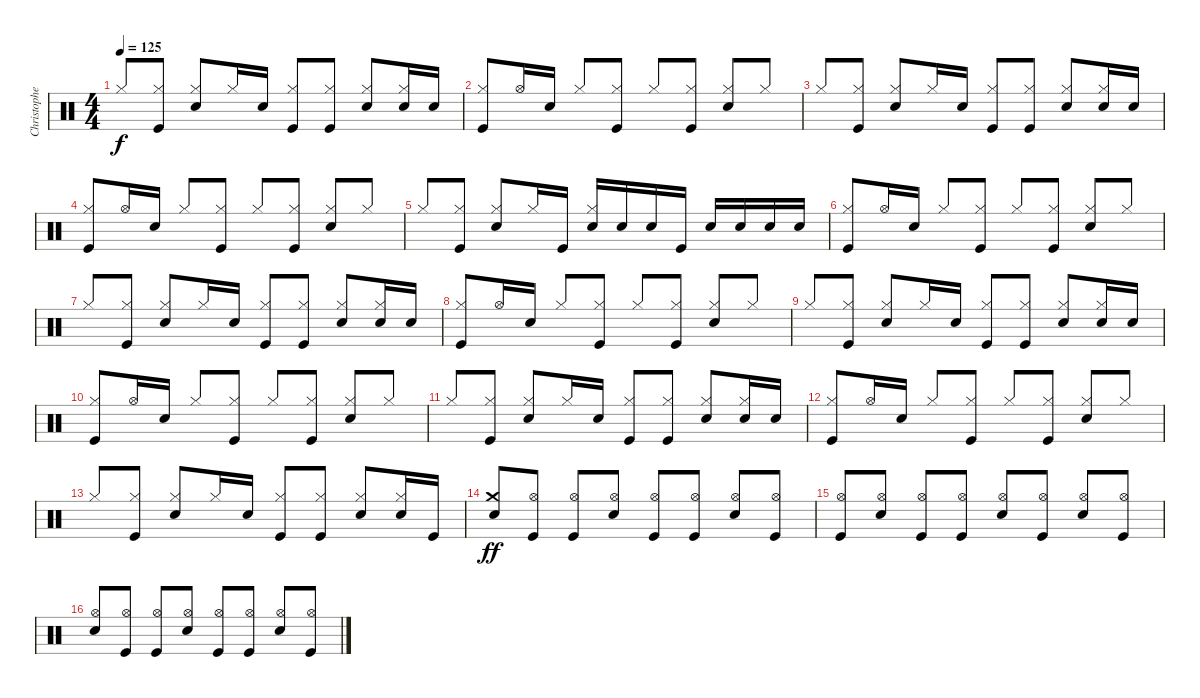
\track ("Christopher Guanlao - Drums" "Christophe") {instrument percussion}
\staff {score}
\articulation defaults
\ts (4 4)
\tempo 125
\clef neutral
\ks c "Hi-Hat (closed)".8{dy f beam Up}
("Hi-Hat (closed)" "Kick (hit)").8{beam Up} ("Hi-Hat (closed)" "Electric Snare (hit)").8{beam Up} "Hi-Hat (closed)".16{beam Up} "Electric Snare (hit)".16{beam Up} ("Hi-Hat (closed)" "Kick (hit)").8{beam Up} ("Hi-Hat (closed)" "Kick (hit)").8{beam Up} ("Hi-Hat (closed)" "Electric Snare (hit)").8{beam Up} ("Hi-Hat (closed)" "Electric Snare (hit)").16{beam Up} "Electric Snare (hit)".16{beam Up} |
("Hi-Hat (closed)" "Kick (hit)").8{beam Up} "Hi-Hat (open)".16{beam Up} "Electric Snare (hit)".16{beam Up} "Hi-Hat (closed)".8{beam Up} ("Hi-Hat (closed)" "Kick (hit)").8{beam Up} "Hi-Hat (closed)".8{beam Up} ("Hi-Hat (closed)" "Kick (hit)").8{beam Up} ("Hi-Hat (closed)" "Electric Snare (hit)").8{beam Up} "Hi-Hat (closed)".8{beam Up} |
"Hi-Hat (closed)".8{beam Up} ("Hi-Hat (closed)" "Kick (hit)").8{beam Up} ("Hi-Hat (closed)" "Electric Snare (hit)").8{beam Up} "Hi-Hat (closed)".16{beam Up} "Electric Snare (hit)".16{beam Up} ("Hi-Hat (closed)" "Kick (hit)").8{beam Up} ("Hi-Hat (closed)" "Kick (hit)").8{beam Up} ("Hi-Hat (closed)" "Electric Snare (hit)").8{beam Up} ("Hi-Hat (closed)" "Electric Snare (hit)").16{beam Up} "Electric Snare (hit)".16{beam Up} |
("Hi-Hat (closed)" "Kick (hit)").8{beam Up} "Hi-Hat (open)".16{beam Up} "Electric Snare (hit)".16{beam Up} "Hi-Hat (closed)".8{beam Up} ("Hi-Hat (closed)" "Kick (hit)").8{beam Up} "Hi-Hat (closed)".8{beam Up} ("Hi-Hat (closed)" "Kick (hit)").8{beam Up} ("Hi-Hat (closed)" "Electric Snare (hit)").8{beam Up} "Hi-Hat (closed)".8{beam Up} |
"Hi-Hat (closed)".8{beam Up} ("Hi-Hat (closed)" "Kick (hit)").8{beam Up} ("Hi-Hat (closed)" "Electric Snare (hit)").8{beam Up} "Hi-Hat (closed)".16{beam Up} "Kick (hit)".16{beam Up} ("Hi-Hat (closed)" "Electric Snare (hit)").16{beam Up} "Electric Snare (hit)".16{beam Up} "Electric Snare (hit)".16{beam Up} "Kick (hit)".16{beam Up} "Electric Snare (hit)".16{beam Up} "Electric Snare (hit)".16{beam Up} "Electric Snare (hit)".16{beam Up} "Electric Snare (hit)".16{beam Up} |
("Hi-Hat (closed)" "Kick (hit)").8{beam Up} "Hi-Hat (open)".16{beam Up} "Electric Snare (hit)".16{beam Up} "Hi-Hat (closed)".8{beam Up} ("Hi-Hat (closed)" "Kick (hit)").8{beam Up} "Hi-Hat (closed)".8{beam Up} ("Hi-Hat (closed)" "Kick (hit)").8{beam Up} ("Hi-Hat (closed)" "Electric Snare (hit)").8{beam Up} "Hi-Hat (closed)".8{beam Up} |
"Hi-Hat (closed)".8{beam Up} ("Hi-Hat (closed)" "Kick (hit)").8{beam Up} ("Hi-Hat (closed)" "Electric Snare (hit)").8{beam Up} "Hi-Hat (closed)".16{beam Up} "Electric Snare (hit)".16{beam Up} ("Hi-Hat (closed)" "Kick (hit)").8{beam Up} ("Hi-Hat (closed)" "Kick (hit)").8{beam Up} ("Hi-Hat (closed)" "Electric Snare (hit)").8{beam Up} ("Hi-Hat (closed)" "Electric Snare (hit)").16{beam Up} "Electric Snare (hit)".16{beam Up} |
("Hi-Hat (closed)" "Kick (hit)").8{beam Up} "Hi-Hat (open)".16{beam Up} "Electric Snare (hit)".16{beam Up} "Hi-Hat (closed)".8{beam Up} ("Hi-Hat (closed)" "Kick (hit)").8{beam Up} "Hi-Hat (closed)".8{beam Up} ("Hi-Hat (closed)" "Kick (hit)").8{beam Up} ("Hi-Hat (closed)" "Electric Snare (hit)").8{beam Up} "Hi-Hat (closed)".8{beam Up} |
"Hi-Hat (closed)".8{beam Up} ("Hi-Hat (closed)" "Kick (hit)").8{beam Up} ("Hi-Hat (closed)" "Electric Snare (hit)").8{beam Up} "Hi-Hat (closed)".16{beam Up} "Electric Snare (hit)".16{beam Up} ("Hi-Hat (closed)" "Kick (hit)").8{beam Up} ("Hi-Hat (closed)" "Kick (hit)").8{beam Up} ("Hi-Hat (closed)" "Electric Snare (hit)").8{beam Up} ("Hi-Hat (closed)" "Electric Snare (hit)").16{beam Up} "Electric Snare (hit)".16{beam Up} |
("Hi-Hat (closed)" "Kick (hit)").8{beam Up} "Hi-Hat (open)".16{beam Up} "Electric Snare (hit)".16{beam Up} "Hi-Hat (closed)".8{beam Up} ("Hi-Hat (closed)" "Kick (hit)").8{beam Up} "Hi-Hat (closed)".8{beam Up} ("Hi-Hat (closed)" "Kick (hit)").8{beam Up} ("Hi-Hat (closed)" "Electric Snare (hit)").8{beam Up} "Hi-Hat (closed)".8{beam Up} |
"Hi-Hat (closed)".8{beam Up} ("Hi-Hat (closed)" "Kick (hit)").8{beam Up} ("Hi-Hat (closed)" "Electric Snare (hit)").8{beam Up} "Hi-Hat (closed)".16{beam Up} "Electric Snare (hit)".16{beam Up} ("Hi-Hat (closed)" "Kick (hit)").8{beam Up} ("Hi-Hat (closed)" "Kick (hit)").8{beam Up} ("Hi-Hat (closed)" "Electric Snare (hit)").8{beam Up} ("Hi-Hat (closed)" "Electric Snare (hit)").16{beam Up} "Electric Snare (hit)".16{beam Up} |
("Hi-Hat (closed)" "Kick (hit)").8{beam Up} "Hi-Hat (open)".16{beam Up} "Electric Snare (hit)".16{beam Up} "Hi-Hat (closed)".8{beam Up} ("Hi-Hat (closed)" "Kick (hit)").8{beam Up} "Hi-Hat (closed)".8{beam Up} ("Hi-Hat (closed)" "Kick (hit)").8{beam Up} ("Hi-Hat (closed)" "Electric Snare (hit)").8{beam Up} "Hi-Hat (closed)".8{beam Up} |
"Hi-Hat (closed)".8{beam Up} ("Hi-Hat (closed)" "Kick (hit)").8{beam Up} ("Hi-Hat (closed)" "Electric Snare (hit)").8{beam Up} "Hi-Hat (closed)".16{beam Up} "Electric Snare (hit)".16{beam Up} ("Hi-Hat (closed)" "Kick (hit)").8{beam Up} ("Hi-Hat (closed)" "Kick (hit)").8{beam Up} ("Hi-Hat (closed)" "Electric Snare (hit)").8{beam Up} ("Hi-Hat (closed)" "Electric Snare (hit)").16{beam Up} "Kick (hit)".16 |
("Crash medium (hit)" "Electric Snare (hit)").8{dy ff volume 16 beam Up} ("Hi-Hat (open)" "Kick (hit)").8{beam Up} ("Hi-Hat (open)" "Kick (hit)").8{beam Up} ("Hi-Hat (open)" "Electric Snare (hit)").8{beam Up} ("Hi-Hat (open)" "Kick (hit)").8{beam Up} ("Hi-Hat (open)" "Kick (hit)").8{beam Up} ("Hi-Hat (open)" "Electric Snare (hit)").8{beam Up} ("Hi-Hat (open)" "Kick (hit)").8{beam Up} |
("Hi-Hat (open)" "Kick (hit)").8{beam Up} ("Hi-Hat (open)" "Electric Snare (hit)").8{beam Up} ("Hi-Hat (open)" "Kick (hit)").8{beam Up} ("Hi-Hat (open)" "Kick (hit)").8{beam Up} ("Hi-Hat (open)" "Electric Snare (hit)").8{beam Up} ("Hi-Hat (open)" "Kick (hit)").8{beam Up} ("Hi-Hat (open)" "Electric Snare (hit)").8{beam Up} ("Hi-Hat (open)" "Kick (hit)").8{beam Up} |
("Hi-Hat (open)" "Electric Snare (hit)").8{beam Up} ("Hi-Hat (open)" "Kick (hit)").8{beam Up} ("Hi-Hat (open)" "Kick (hit)").8{beam Up} ("Hi-Hat (open)" "Electric Snare (hit)").8{beam Up} ("Hi-Hat (open)" "Kick (hit)").8{beam Up} ("Hi-Hat (open)" "Kick (hit)").8{beam Up} ("Hi-Hat (open)" "Electric Snare (hit)").8{beam Up} ("Hi-Hat (open)" "Kick (hit)").8{beam Up}
